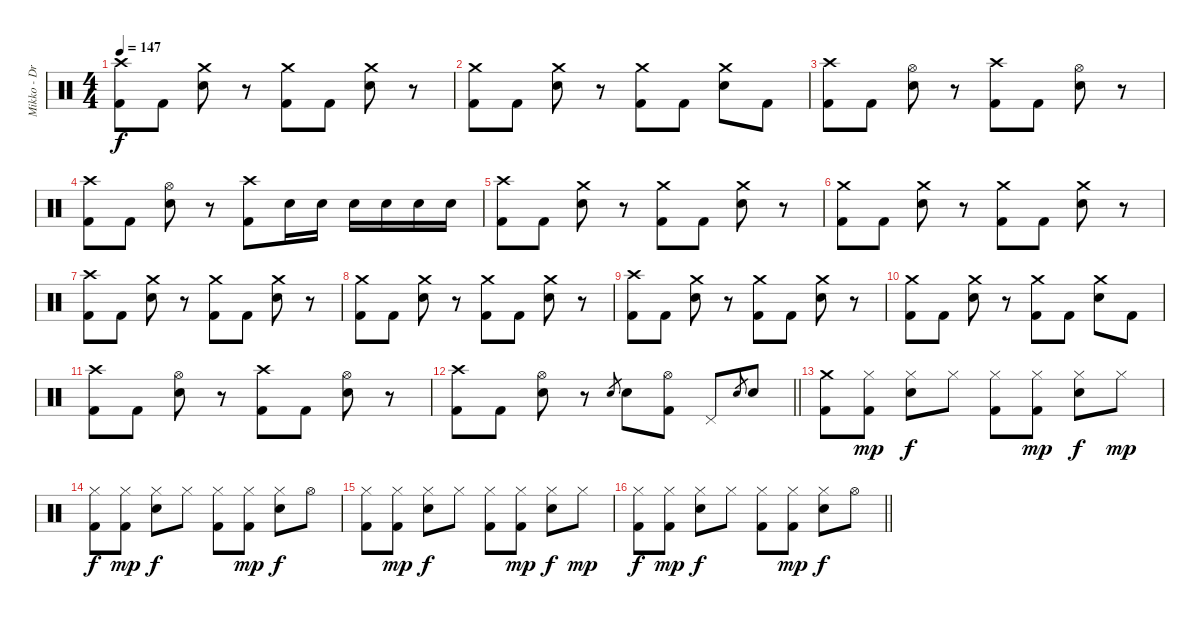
\track ("Mikko - Drums" "Mikko - Dr") {instrument percussion}
\staff {score}
\articulation defaults
\ts (4 4)
\tempo 147
\clef neutral
\ks c
("Crash high (hit)" "Kick (hit) 2").8{dy f} "Kick (hit) 2".8 ("Crash medium (hit)" "Snare (hit) 2").8 r.8 ("Crash medium (hit)" "Kick (hit) 2").8 "Kick (hit) 2".8 ("Crash medium (hit)" "Snare (hit) 2").8 r.8 |
("Crash medium (hit)" "Kick (hit) 2").8 "Kick (hit) 2".8 ("Crash medium (hit)" "Snare (hit) 2").8 r.8 ("Crash medium (hit)" "Kick (hit) 2").8 "Kick (hit) 2".8 ("Crash medium (hit)" "Snare (hit) 2").8 "Kick (hit) 2".8 |
("Crash high (hit)" "Kick (hit) 2").8 "Kick (hit) 2".8 ("Hi-Hat (open)" "Snare (hit) 2").8 r.8 ("Crash high (hit)" "Kick (hit) 2").8 "Kick (hit) 2".8 ("Hi-Hat (open)" "Snare (hit) 2").8 r.8 |
("Crash high (hit)" "Kick (hit) 2").8 "Kick (hit) 2".8 ("Hi-Hat (open)" "Snare (hit) 2").8 r.8 ("Crash high (hit)" "Kick (hit) 2").8 "Snare (hit) 2".16 "Snare (hit) 2".16 "Snare (hit) 2".16 "Snare (hit) 2".16 "Snare (hit) 2".16 "Snare (hit) 2".16 |
("Crash high (hit)" "Kick (hit) 2").8 "Kick (hit) 2".8 ("Crash medium (hit)" "Snare (hit) 2").8 r.8 ("Crash medium (hit)" "Kick (hit) 2").8 "Kick (hit) 2".8 ("Crash medium (hit)" "Snare (hit) 2").8 r.8 |
("Crash medium (hit)" "Kick (hit) 2").8 "Kick (hit) 2".8 ("Crash medium (hit)" "Snare (hit) 2").8 r.8 ("Crash medium (hit)" "Kick (hit) 2").8 "Kick (hit) 2".8 ("Crash medium (hit)" "Snare (hit) 2").8 r.8 |
("Crash high (hit)" "Kick (hit) 2").8 "Kick (hit) 2".8 ("Crash medium (hit)" "Snare (hit) 2").8 r.8 ("Crash medium (hit)" "Kick (hit) 2").8 "Kick (hit) 2".8 ("Crash medium (hit)" "Snare (hit) 2").8 r.8 |
("Crash medium (hit)" "Kick (hit) 2").8 "Kick (hit) 2".8 ("Crash medium (hit)" "Snare (hit) 2").8 r.8 ("Crash medium (hit)" "Kick (hit) 2").8 "Kick (hit) 2".8 ("Crash medium (hit)" "Snare (hit) 2").8 r.8 |
("Crash high (hit)" "Kick (hit) 2").8 "Kick (hit) 2".8 ("Crash medium (hit)" "Snare (hit) 2").8 r.8 ("Crash medium (hit)" "Kick (hit) 2").8 "Kick (hit) 2".8 ("Crash medium (hit)" "Snare (hit) 2").8 r.8 |
("Crash medium (hit)" "Kick (hit) 2").8 "Kick (hit) 2".8 ("Crash medium (hit)" "Snare (hit) 2").8 r.8 ("Crash medium (hit)" "Kick (hit) 2").8 "Kick (hit) 2".8 ("Crash medium (hit)" "Snare (hit) 2").8 "Kick (hit) 2".8 |
("Crash high (hit)" "Kick (hit) 2").8 "Kick (hit) 2".8 ("Hi-Hat (open)" "Snare (hit) 2").8 r.8 ("Crash high (hit)" "Kick (hit) 2").8 "Kick (hit) 2".8 ("Hi-Hat (open)" "Snare (hit) 2").8 r.8 |
\barLineRight lightlight
("Crash high (hit)" "Kick (hit) 2").8 "Kick (hit) 2".8 ("Hi-Hat (open)" "Snare (hit) 2").8 r.8 "Snare (hit) 2".8{gr} "Snare (hit) 2".8 ("Hi-Hat (open)" "Kick (hit) 2").8 "Pedal Hi-Hat (hit)".8 "Snare (hit) 2".8{gr} "Snare (hit) 2".8 |
("Crash medium (hit)" "Kick (hit) 2").8 ("Hi-Hat (closed)" "Kick (hit) 2").8{dy mp} ("Hi-Hat (closed)" "Snare (hit) 2").8{dy f} "Hi-Hat (closed)".8 ("Hi-Hat (closed)" "Kick (hit) 2").8 ("Hi-Hat (closed)" "Kick (hit) 2").8{dy mp} ("Hi-Hat (closed)" "Snare (hit) 2").8{dy f} "Hi-Hat (closed)".8{dy mp} |
("Hi-Hat (closed)" "Kick (hit) 2").8{dy f} ("Hi-Hat (closed)" "Kick (hit) 2").8{dy mp} ("Hi-Hat (closed)" "Snare (hit) 2").8{dy f} "Hi-Hat (closed)".8 ("Hi-Hat (closed)" "Kick (hit) 2").8 ("Hi-Hat (closed)" "Kick (hit) 2").8{dy mp} ("Hi-Hat (closed)" "Snare (hit) 2").8{dy f} "Hi-Hat (open)".8 |
("Hi-Hat (closed)" "Kick (hit) 2").8 ("Hi-Hat (closed)" "Kick (hit) 2").8{dy mp} ("Hi-Hat (closed)" "Snare (hit) 2").8{dy f} "Hi-Hat (closed)".8 ("Hi-Hat (closed)" "Kick (hit) 2").8 ("Hi-Hat (closed)" "Kick (hit) 2").8{dy mp} ("Hi-Hat (closed)" "Snare (hit) 2").8{dy f} "Hi-Hat (closed)".8{dy mp} |
\barLineRight lightlight
("Hi-Hat (closed)" "Kick (hit) 2").8{dy f} ("Hi-Hat (closed)" "Kick (hit) 2").8{dy mp} ("Hi-Hat (closed)" "Snare (hit) 2").8{dy f} "Hi-Hat (closed)".8 ("Hi-Hat (closed)" "Kick (hit) 2").8 ("Hi-Hat (closed)" "Kick (hit) 2").8{dy mp} ("Hi-Hat (closed)" "Snare (hit) 2").8{dy f} "Hi-Hat (open)".8
